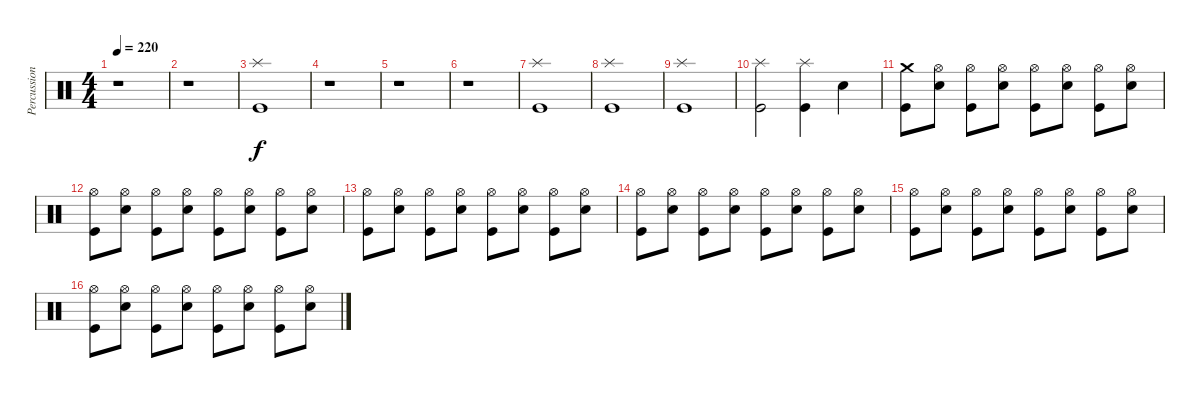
\track ("Percussions" "Percussion") {instrument percussion}
\staff {score}
\articulation defaults
\ts (4 4)
\tempo 220
\clef neutral
\ks c
r.1{dy f} |
r.1 |
("Kick (hit)" "Splash (hit)").1 |
r.1 |
r.1 |
r.1 |
("Kick (hit)" "Splash (hit)").1 |
("Kick (hit)" "Splash (hit)").1 |
("Kick (hit)" "Splash (hit)").1 |
("Kick (hit)" "Splash (hit)").2 ("Kick (hit)" "Splash (hit)").4 "Electric Snare (hit)".4 |
("Kick (hit)" "Crash medium (hit)").8 ("Electric Snare (hit)" "Hi-Hat (open)").8 ("Kick (hit)" "Hi-Hat (open)").8 ("Electric Snare (hit)" "Hi-Hat (open)").8 ("Kick (hit)" "Hi-Hat (open)").8 ("Electric Snare (hit)" "Hi-Hat (open)").8 ("Kick (hit)" "Hi-Hat (open)").8 ("Electric Snare (hit)" "Hi-Hat (open)").8 |
("Kick (hit)" "Hi-Hat (open)").8 ("Electric Snare (hit)" "Hi-Hat (open)").8 ("Kick (hit)" "Hi-Hat (open)").8 ("Electric Snare (hit)" "Hi-Hat (open)").8 ("Kick (hit)" "Hi-Hat (open)").8 ("Electric Snare (hit)" "Hi-Hat (open)").8 ("Kick (hit)" "Hi-Hat (open)").8 ("Electric Snare (hit)" "Hi-Hat (open)").8 |
("Kick (hit)" "Hi-Hat (open)").8 ("Electric Snare (hit)" "Hi-Hat (open)").8 ("Kick (hit)" "Hi-Hat (open)").8 ("Electric Snare (hit)" "Hi-Hat (open)").8 ("Kick (hit)" "Hi-Hat (open)").8 ("Electric Snare (hit)" "Hi-Hat (open)").8 ("Kick (hit)" "Hi-Hat (open)").8 ("Electric Snare (hit)" "Hi-Hat (open)").8 |
("Kick (hit)" "Hi-Hat (open)").8 ("Electric Snare (hit)" "Hi-Hat (open)").8 ("Kick (hit)" "Hi-Hat (open)").8 ("Electric Snare (hit)" "Hi-Hat (open)").8 ("Kick (hit)" "Hi-Hat (open)").8 ("Electric Snare (hit)" "Hi-Hat (open)").8 ("Kick (hit)" "Hi-Hat (open)").8 ("Electric Snare (hit)" "Hi-Hat (open)").8 |
("Kick (hit)" "Hi-Hat (open)").8 ("Electric Snare (hit)" "Hi-Hat (open)").8 ("Kick (hit)" "Hi-Hat (open)").8 ("Electric Snare (hit)" "Hi-Hat (open)").8 ("Kick (hit)" "Hi-Hat (open)").8 ("Electric Snare (hit)" "Hi-Hat (open)").8 ("Kick (hit)" "Hi-Hat (open)").8 ("Electric Snare (hit)" "Hi-Hat (open)").8 |
("Kick (hit)" "Hi-Hat (open)").8 ("Electric Snare (hit)" "Hi-Hat (open)").8 ("Kick (hit)" "Hi-Hat (open)").8 ("Electric Snare (hit)" "Hi-Hat (open)").8 ("Kick (hit)" "Hi-Hat (open)").8 ("Electric Snare (hit)" "Hi-Hat (open)").8 ("Kick (hit)" "Hi-Hat (open)").8 ("Electric Snare (hit)" "Hi-Hat (open)").8
